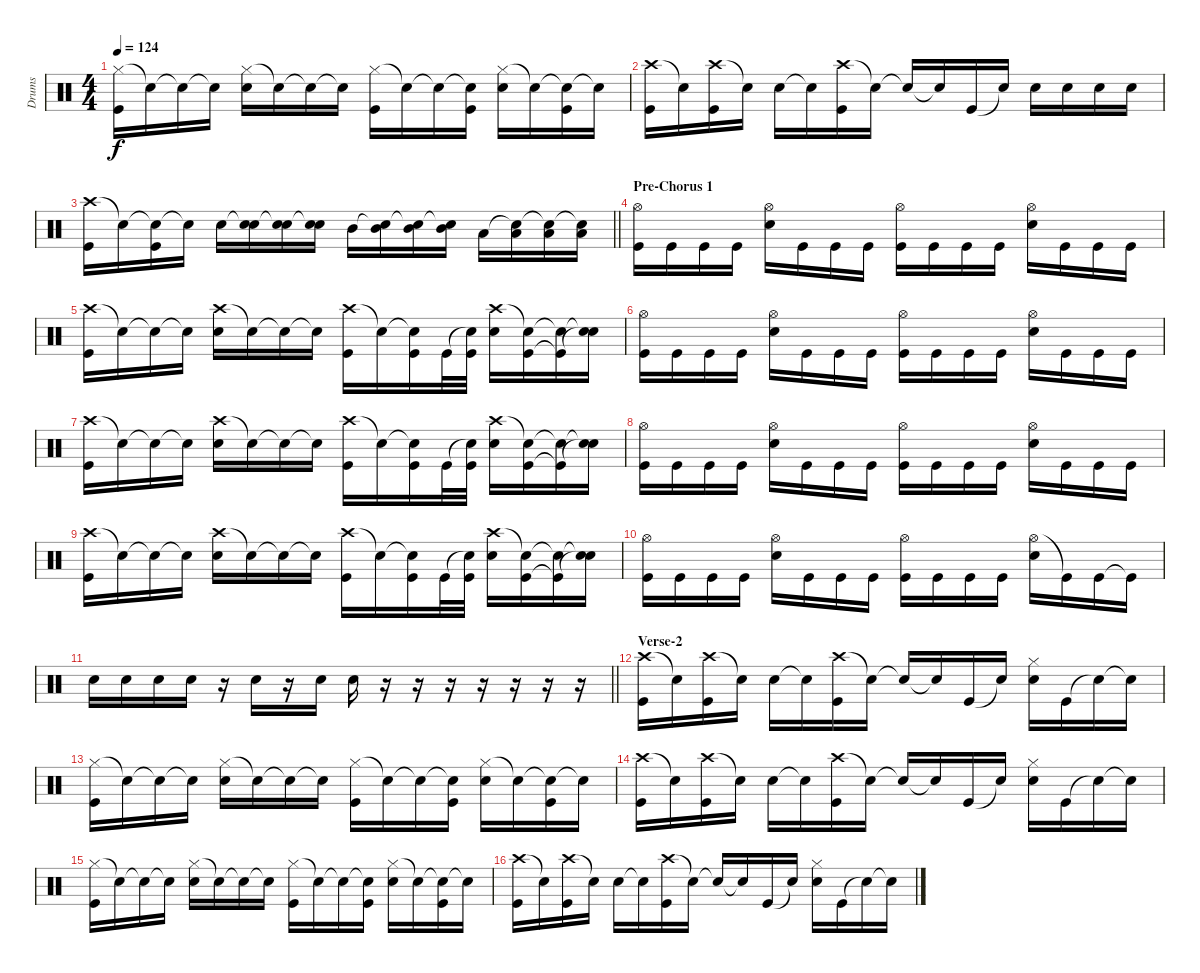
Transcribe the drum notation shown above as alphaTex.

\track ("Drums" "Drums") {instrument percussion}
\staff {score}
\articulation defaults
\ts (4 4)
\tempo 124
\clef neutral
\ks c
("Hi-Hat (closed)" "Kick (hit)").16{dy f} "Snare (hit)"{t}.16 "Snare (hit)"{t}.16 "Snare (hit)"{t}.16 ("Hi-Hat (closed)" "Electric Snare (hit)").16 "Snare (hit)"{t}.16 "Snare (hit)"{t}.16 "Snare (hit)"{t}.16 ("Hi-Hat (closed)" "Kick (hit)").16 "Snare (hit)"{t}.16 "Snare (hit)"{t}.16 ("Snare (hit)"{t} "Kick (hit)").16 ("Hi-Hat (closed)" "Electric Snare (hit)").16 "Snare (hit)"{t}.16 ("Snare (hit)"{t} "Kick (hit)").16 "Snare (hit)"{t}.16 |
("Crash high (hit)" "Kick (hit)").16 "Snare (hit)"{t}.16 ("Crash high (hit)" "Kick (hit)").16 "Snare (hit)"{t}.16 "Electric Snare (hit)".16 "Snare (hit)"{t}.16 ("Crash high (hit)" "Kick (hit)").16 "Snare (hit)"{t}.16 "Snare (hit)"{t}.16 "Snare (hit)"{t}.16 "Kick (hit)".16 "Snare (hit)"{t}.16 "Electric Snare (hit)".16 "Electric Snare (hit)".16 "Electric Snare (hit)".16 "Electric Snare (hit)".16 |
\barLineRight lightlight
("Crash high (hit)" "Kick (hit)").16 "Snare (hit)"{t}.16 ("Snare (hit)"{t} "Kick (hit)").16 "Snare (hit)"{t}.16 "Electric Snare (hit)".16 ("Snare (hit)"{t} "Electric Snare (hit)").16 ("Snare (hit)"{t} "Electric Snare (hit)").16 ("Snare (hit)"{t} "Electric Snare (hit)").16 "Mid Tom (hit)".16 ("Snare (hit)"{t} "Mid Tom (hit)").16 ("Snare (hit)"{t} "Mid Tom (hit)").16 ("Snare (hit)"{t} "Mid Tom (hit)").16 "Low Tom (hit)".16 ("Snare (hit)"{t} "Low Tom (hit)").16 ("Snare (hit)"{t} "Low Tom (hit)").16 ("Snare (hit)"{t} "Low Tom (hit)").16 |
\section ("" "Pre-Chorus 1")
("Hi-Hat (open)" "Kick (hit)").16 "Kick (hit)".16 "Kick (hit)".16 "Kick (hit)".16 ("Hi-Hat (open)" "Electric Snare (hit)").16 "Kick (hit)".16 "Kick (hit)".16 "Kick (hit)".16 ("Hi-Hat (open)" "Kick (hit)").16 "Kick (hit)".16 "Kick (hit)".16 "Kick (hit)".16 ("Hi-Hat (open)" "Electric Snare (hit)").16 "Kick (hit)".16 "Kick (hit)".16 "Kick (hit)".16 |
("Crash high (hit)" "Kick (hit)").16 "Snare (hit)"{t}.16 "Snare (hit)"{t}.16 "Snare (hit)"{t}.16 ("Crash high (hit)" "Electric Snare (hit)").16 "Snare (hit)"{t}.16 "Snare (hit)"{t}.16 "Snare (hit)"{t}.16 ("Crash high (hit)" "Kick (hit)").16 "Snare (hit)"{t}.16 ("Snare (hit)"{t} "Kick (hit)").16 "Kick (hit)".32 ("Snare (hit)"{t} "Kick (hit)").32 ("Crash high (hit)" "Electric Snare (hit)").16 ("Snare (hit)"{t} "Kick (hit)").16 ("Snare (hit)"{t} "Kick (hit)"{t}).16 ("Snare (hit)"{t} "Electric Snare (hit)"{t}).16 |
("Hi-Hat (open)" "Kick (hit)").16 "Kick (hit)".16 "Kick (hit)".16 "Kick (hit)".16 ("Hi-Hat (open)" "Electric Snare (hit)").16 "Kick (hit)".16 "Kick (hit)".16 "Kick (hit)".16 ("Hi-Hat (open)" "Kick (hit)").16 "Kick (hit)".16 "Kick (hit)".16 "Kick (hit)".16 ("Hi-Hat (open)" "Electric Snare (hit)").16 "Kick (hit)".16 "Kick (hit)".16 "Kick (hit)".16 |
("Crash high (hit)" "Kick (hit)").16 "Snare (hit)"{t}.16 "Snare (hit)"{t}.16 "Snare (hit)"{t}.16 ("Crash high (hit)" "Electric Snare (hit)").16 "Snare (hit)"{t}.16 "Snare (hit)"{t}.16 "Snare (hit)"{t}.16 ("Crash high (hit)" "Kick (hit)").16 "Snare (hit)"{t}.16 ("Snare (hit)"{t} "Kick (hit)").16 "Kick (hit)".32 ("Snare (hit)"{t} "Kick (hit)").32 ("Crash high (hit)" "Electric Snare (hit)").16 ("Snare (hit)"{t} "Kick (hit)").16 ("Snare (hit)"{t} "Kick (hit)"{t}).16 ("Snare (hit)"{t} "Electric Snare (hit)"{t}).16 |
("Hi-Hat (open)" "Kick (hit)").16 "Kick (hit)".16 "Kick (hit)".16 "Kick (hit)".16 ("Hi-Hat (open)" "Electric Snare (hit)").16 "Kick (hit)".16 "Kick (hit)".16 "Kick (hit)".16 ("Hi-Hat (open)" "Kick (hit)").16 "Kick (hit)".16 "Kick (hit)".16 "Kick (hit)".16 ("Hi-Hat (open)" "Electric Snare (hit)").16 "Kick (hit)".16 "Kick (hit)".16 "Kick (hit)".16 |
("Crash high (hit)" "Kick (hit)").16 "Snare (hit)"{t}.16 "Snare (hit)"{t}.16 "Snare (hit)"{t}.16 ("Crash high (hit)" "Electric Snare (hit)").16 "Snare (hit)"{t}.16 "Snare (hit)"{t}.16 "Snare (hit)"{t}.16 ("Crash high (hit)" "Kick (hit)").16 "Snare (hit)"{t}.16 ("Snare (hit)"{t} "Kick (hit)").16 "Kick (hit)".32 ("Snare (hit)"{t} "Kick (hit)").32 ("Crash high (hit)" "Electric Snare (hit)").16 ("Snare (hit)"{t} "Kick (hit)").16 ("Snare (hit)"{t} "Kick (hit)"{t}).16 ("Snare (hit)"{t} "Electric Snare (hit)"{t}).16 |
("Hi-Hat (open)" "Kick (hit)").16 "Kick (hit)".16 "Kick (hit)".16 "Kick (hit)".16 ("Hi-Hat (open)" "Electric Snare (hit)").16 "Kick (hit)".16 "Kick (hit)".16 "Kick (hit)".16 ("Hi-Hat (open)" "Kick (hit)").16 "Kick (hit)".16 "Kick (hit)".16 "Kick (hit)".16 ("Hi-Hat (open)" "Electric Snare (hit)").16 "Kick (hit)"{t}.16 "Kick (hit)".16 "Kick (hit)"{t}.16 |
\barLineRight lightlight "Electric Snare (hit)".16 "Electric Snare (hit)".16 "Electric Snare (hit)".16 "Electric Snare (hit)".16
r.16 "Electric Snare (hit)".16 r.16 "Electric Snare (hit)".16 "Electric Snare (hit)".16 r.16 r.16 r.16 r.16 r.16 r.16 r.16 |
\section ("" "Verse-2")
("Crash high (hit)" "Kick (hit)").16 "Snare (hit)"{t}.16 ("Crash high (hit)" "Kick (hit)").16 "Snare (hit)"{t}.16 "Electric Snare (hit)".16 "Snare (hit)"{t}.16 ("Crash high (hit)" "Kick (hit)").16 "Snare (hit)"{t}.16 "Snare (hit)"{t}.16 "Snare (hit)"{t}.16 "Kick (hit)".16 "Snare (hit)"{t}.16 ("Hi-Hat (closed)" "Electric Snare (hit)").16 "Kick (hit)".16 "Snare (hit)"{t}.16 "Snare (hit)"{t}.16 |
("Hi-Hat (closed)" "Kick (hit)").16 "Snare (hit)"{t}.16 "Snare (hit)"{t}.16 "Snare (hit)"{t}.16 ("Hi-Hat (closed)" "Electric Snare (hit)").16 "Snare (hit)"{t}.16 "Snare (hit)"{t}.16 "Snare (hit)"{t}.16 ("Hi-Hat (closed)" "Kick (hit)").16 "Snare (hit)"{t}.16 "Snare (hit)"{t}.16 ("Snare (hit)"{t} "Kick (hit)").16 ("Hi-Hat (closed)" "Electric Snare (hit)").16 "Snare (hit)"{t}.16 ("Snare (hit)"{t} "Kick (hit)").16 "Snare (hit)"{t}.16 |
("Crash high (hit)" "Kick (hit)").16 "Snare (hit)"{t}.16 ("Crash high (hit)" "Kick (hit)").16 "Snare (hit)"{t}.16 "Electric Snare (hit)".16 "Snare (hit)"{t}.16 ("Crash high (hit)" "Kick (hit)").16 "Snare (hit)"{t}.16 "Snare (hit)"{t}.16 "Snare (hit)"{t}.16 "Kick (hit)".16 "Snare (hit)"{t}.16 ("Hi-Hat (closed)" "Electric Snare (hit)").16 "Kick (hit)".16 "Snare (hit)"{t}.16 "Snare (hit)"{t}.16 |
("Hi-Hat (closed)" "Kick (hit)").16 "Snare (hit)"{t}.16 "Snare (hit)"{t}.16 "Snare (hit)"{t}.16 ("Hi-Hat (closed)" "Electric Snare (hit)").16 "Snare (hit)"{t}.16 "Snare (hit)"{t}.16 "Snare (hit)"{t}.16 ("Hi-Hat (closed)" "Kick (hit)").16 "Snare (hit)"{t}.16 "Snare (hit)"{t}.16 ("Snare (hit)"{t} "Kick (hit)").16 ("Hi-Hat (closed)" "Electric Snare (hit)").16 "Snare (hit)"{t}.16 ("Snare (hit)"{t} "Kick (hit)").16 "Snare (hit)"{t}.16 |
("Crash high (hit)" "Kick (hit)").16 "Snare (hit)"{t}.16 ("Crash high (hit)" "Kick (hit)").16 "Snare (hit)"{t}.16 "Electric Snare (hit)".16 "Snare (hit)"{t}.16 ("Crash high (hit)" "Kick (hit)").16 "Snare (hit)"{t}.16 "Snare (hit)"{t}.16 "Snare (hit)"{t}.16 "Kick (hit)".16 "Snare (hit)"{t}.16 ("Hi-Hat (closed)" "Electric Snare (hit)").16 "Kick (hit)".16 "Snare (hit)"{t}.16 "Snare (hit)"{t}.16
